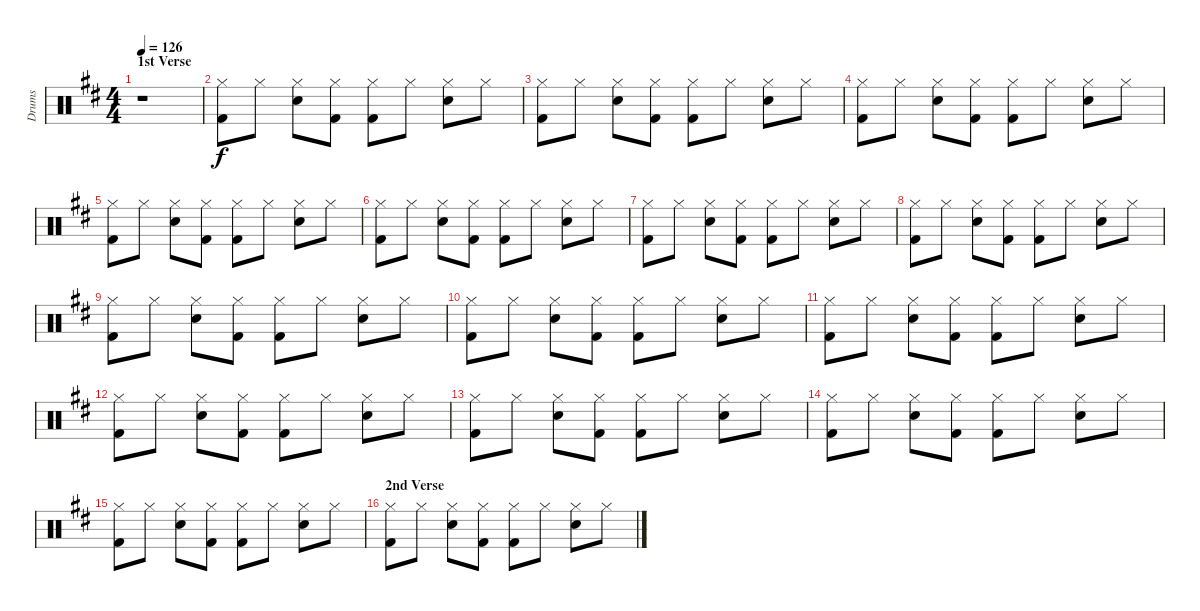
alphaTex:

\track ("Drums" "Drums") {instrument percussion}
\staff {score}
\articulation defaults
\ts (4 4)
\section ("" "1st Verse")
\tempo 126
\clef neutral
\ks d
r.1{dy f} |
("Kick (hit) 2" "Hi-Hat (closed)").8 "Hi-Hat (closed)".8 ("Snare (hit) 2" "Hi-Hat (closed)").8 ("Kick (hit) 2" "Hi-Hat (closed)").8 ("Kick (hit) 2" "Hi-Hat (closed)").8 "Hi-Hat (closed)".8 ("Snare (hit) 2" "Hi-Hat (closed)").8 "Hi-Hat (closed)".8 |
("Kick (hit) 2" "Hi-Hat (closed)").8 "Hi-Hat (closed)".8 ("Snare (hit) 2" "Hi-Hat (closed)").8 ("Kick (hit) 2" "Hi-Hat (closed)").8 ("Kick (hit) 2" "Hi-Hat (closed)").8 "Hi-Hat (closed)".8 ("Snare (hit) 2" "Hi-Hat (closed)").8 "Hi-Hat (closed)".8 |
("Kick (hit) 2" "Hi-Hat (closed)").8 "Hi-Hat (closed)".8 ("Snare (hit) 2" "Hi-Hat (closed)").8 ("Kick (hit) 2" "Hi-Hat (closed)").8 ("Kick (hit) 2" "Hi-Hat (closed)").8 "Hi-Hat (closed)".8 ("Snare (hit) 2" "Hi-Hat (closed)").8 "Hi-Hat (closed)".8 |
("Kick (hit) 2" "Hi-Hat (closed)").8 "Hi-Hat (closed)".8 ("Snare (hit) 2" "Hi-Hat (closed)").8 ("Kick (hit) 2" "Hi-Hat (closed)").8 ("Kick (hit) 2" "Hi-Hat (closed)").8 "Hi-Hat (closed)".8 ("Snare (hit) 2" "Hi-Hat (closed)").8 "Hi-Hat (closed)".8 |
("Kick (hit) 2" "Hi-Hat (closed)").8 "Hi-Hat (closed)".8 ("Snare (hit) 2" "Hi-Hat (closed)").8 ("Kick (hit) 2" "Hi-Hat (closed)").8 ("Kick (hit) 2" "Hi-Hat (closed)").8 "Hi-Hat (closed)".8 ("Snare (hit) 2" "Hi-Hat (closed)").8 "Hi-Hat (closed)".8 |
("Kick (hit) 2" "Hi-Hat (closed)").8 "Hi-Hat (closed)".8 ("Snare (hit) 2" "Hi-Hat (closed)").8 ("Kick (hit) 2" "Hi-Hat (closed)").8 ("Kick (hit) 2" "Hi-Hat (closed)").8 "Hi-Hat (closed)".8 ("Snare (hit) 2" "Hi-Hat (closed)").8 "Hi-Hat (closed)".8 |
("Kick (hit) 2" "Hi-Hat (closed)").8 "Hi-Hat (closed)".8 ("Snare (hit) 2" "Hi-Hat (closed)").8 ("Kick (hit) 2" "Hi-Hat (closed)").8 ("Kick (hit) 2" "Hi-Hat (closed)").8 "Hi-Hat (closed)".8 ("Snare (hit) 2" "Hi-Hat (closed)").8 "Hi-Hat (closed)".8 |
("Kick (hit) 2" "Hi-Hat (closed)").8 "Hi-Hat (closed)".8 ("Snare (hit) 2" "Hi-Hat (closed)").8 ("Kick (hit) 2" "Hi-Hat (closed)").8 ("Kick (hit) 2" "Hi-Hat (closed)").8 "Hi-Hat (closed)".8 ("Snare (hit) 2" "Hi-Hat (closed)").8 "Hi-Hat (closed)".8 |
("Kick (hit) 2" "Hi-Hat (closed)").8 "Hi-Hat (closed)".8 ("Snare (hit) 2" "Hi-Hat (closed)").8 ("Kick (hit) 2" "Hi-Hat (closed)").8 ("Kick (hit) 2" "Hi-Hat (closed)").8 "Hi-Hat (closed)".8 ("Snare (hit) 2" "Hi-Hat (closed)").8 "Hi-Hat (closed)".8 |
("Kick (hit) 2" "Hi-Hat (closed)").8 "Hi-Hat (closed)".8 ("Snare (hit) 2" "Hi-Hat (closed)").8 ("Kick (hit) 2" "Hi-Hat (closed)").8 ("Kick (hit) 2" "Hi-Hat (closed)").8 "Hi-Hat (closed)".8 ("Snare (hit) 2" "Hi-Hat (closed)").8 "Hi-Hat (closed)".8 |
("Kick (hit) 2" "Hi-Hat (closed)").8 "Hi-Hat (closed)".8 ("Snare (hit) 2" "Hi-Hat (closed)").8 ("Kick (hit) 2" "Hi-Hat (closed)").8 ("Kick (hit) 2" "Hi-Hat (closed)").8 "Hi-Hat (closed)".8 ("Snare (hit) 2" "Hi-Hat (closed)").8 "Hi-Hat (closed)".8 |
("Kick (hit) 2" "Hi-Hat (closed)").8 "Hi-Hat (closed)".8 ("Snare (hit) 2" "Hi-Hat (closed)").8 ("Kick (hit) 2" "Hi-Hat (closed)").8 ("Kick (hit) 2" "Hi-Hat (closed)").8 "Hi-Hat (closed)".8 ("Snare (hit) 2" "Hi-Hat (closed)").8 "Hi-Hat (closed)".8 |
("Kick (hit) 2" "Hi-Hat (closed)").8 "Hi-Hat (closed)".8 ("Snare (hit) 2" "Hi-Hat (closed)").8 ("Kick (hit) 2" "Hi-Hat (closed)").8 ("Kick (hit) 2" "Hi-Hat (closed)").8 "Hi-Hat (closed)".8 ("Snare (hit) 2" "Hi-Hat (closed)").8 "Hi-Hat (closed)".8 |
("Kick (hit) 2" "Hi-Hat (closed)").8 "Hi-Hat (closed)".8 ("Snare (hit) 2" "Hi-Hat (closed)").8 ("Kick (hit) 2" "Hi-Hat (closed)").8 ("Kick (hit) 2" "Hi-Hat (closed)").8 "Hi-Hat (closed)".8 ("Snare (hit) 2" "Hi-Hat (closed)").8 "Hi-Hat (closed)".8 |
\section ("" "2nd Verse")
("Kick (hit) 2" "Hi-Hat (closed)").8 "Hi-Hat (closed)".8 ("Snare (hit) 2" "Hi-Hat (closed)").8 ("Kick (hit) 2" "Hi-Hat (closed)").8 ("Kick (hit) 2" "Hi-Hat (closed)").8 "Hi-Hat (closed)".8 ("Snare (hit) 2" "Hi-Hat (closed)").8 "Hi-Hat (closed)".8
